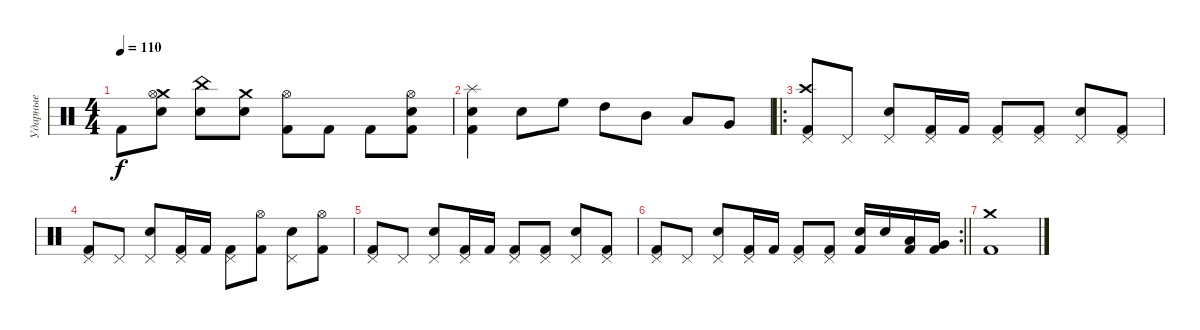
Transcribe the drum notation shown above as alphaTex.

\track ("Ударные" "Ударные") {instrument percussion}
\staff {score}
\articulation defaults
\ts (4 4)
\tempo 110
\clef neutral
\ks c "Kick (hit) 2".8{dy f}
("Crash medium (hit)" "Snare (hit) 2" "Hi-Hat (open)").8 ("China (hit)" "Snare (hit) 2").8 ("Crash medium (hit)" "Snare (hit) 2").8 ("Kick (hit) 2" "Hi-Hat (open)").8 "Kick (hit) 2".8 "Kick (hit) 2".8 ("Kick (hit) 2" "Snare (hit) 2" "Hi-Hat (open)").8 |
("Kick (hit) 2" "Snare (hit) 2" "Splash (hit)").4 "Snare (hit) 2".8 "High Floor Tom (hit)".8 "High Tom (hit)".8 "Mid Tom (hit)".8 "Low Tom (hit)".8 "Very Low Tom (hit)".8 |
\ro
("Crash high (hit)" "Pedal Hi-Hat (hit)" "Kick (hit) 2").8 "Pedal Hi-Hat (hit)".8 ("Pedal Hi-Hat (hit)" "Snare (hit) 2").8 ("Pedal Hi-Hat (hit)" "Kick (hit) 2").16 "Kick (hit) 2".16 ("Pedal Hi-Hat (hit)" "Kick (hit) 2").8 ("Pedal Hi-Hat (hit)" "Kick (hit) 2").8 ("Pedal Hi-Hat (hit)" "Snare (hit) 2").8 ("Pedal Hi-Hat (hit)" "Kick (hit) 2").8 |
("Pedal Hi-Hat (hit)" "Kick (hit) 2").8 "Pedal Hi-Hat (hit)".8 ("Pedal Hi-Hat (hit)" "Snare (hit) 2").8 ("Pedal Hi-Hat (hit)" "Kick (hit) 2").16 "Kick (hit) 2".16 ("Pedal Hi-Hat (hit)" "Kick (hit) 2").8 ("Hi-Hat (open)" "Kick (hit) 2").8 ("Pedal Hi-Hat (hit)" "Snare (hit) 2").8 ("Hi-Hat (open)" "Kick (hit) 2").8 |
("Pedal Hi-Hat (hit)" "Kick (hit) 2").8 "Pedal Hi-Hat (hit)".8 ("Pedal Hi-Hat (hit)" "Snare (hit) 2").8 ("Pedal Hi-Hat (hit)" "Kick (hit) 2").16 "Kick (hit) 2".16 ("Pedal Hi-Hat (hit)" "Kick (hit) 2").8 ("Pedal Hi-Hat (hit)" "Kick (hit) 2").8 ("Pedal Hi-Hat (hit)" "Snare (hit) 2").8 ("Pedal Hi-Hat (hit)" "Kick (hit) 2").8 |
\rc 2
\barLineRight lightlight
("Pedal Hi-Hat (hit)" "Kick (hit) 2").8 "Pedal Hi-Hat (hit)".8 ("Pedal Hi-Hat (hit)" "Snare (hit) 2").8 ("Pedal Hi-Hat (hit)" "Kick (hit) 2").16 "Kick (hit) 2".16 ("Pedal Hi-Hat (hit)" "Kick (hit) 2").8 ("Pedal Hi-Hat (hit)" "Kick (hit) 2").8 ("Snare (hit) 2" "Kick (hit) 2").16 "Snare (hit) 2".16 ("Low Tom (hit)" "Kick (hit) 2").16 ("Very Low Tom (hit)" "Kick (hit) 2").16 |
("Crash medium (hit)" "Kick (hit) 2").1
